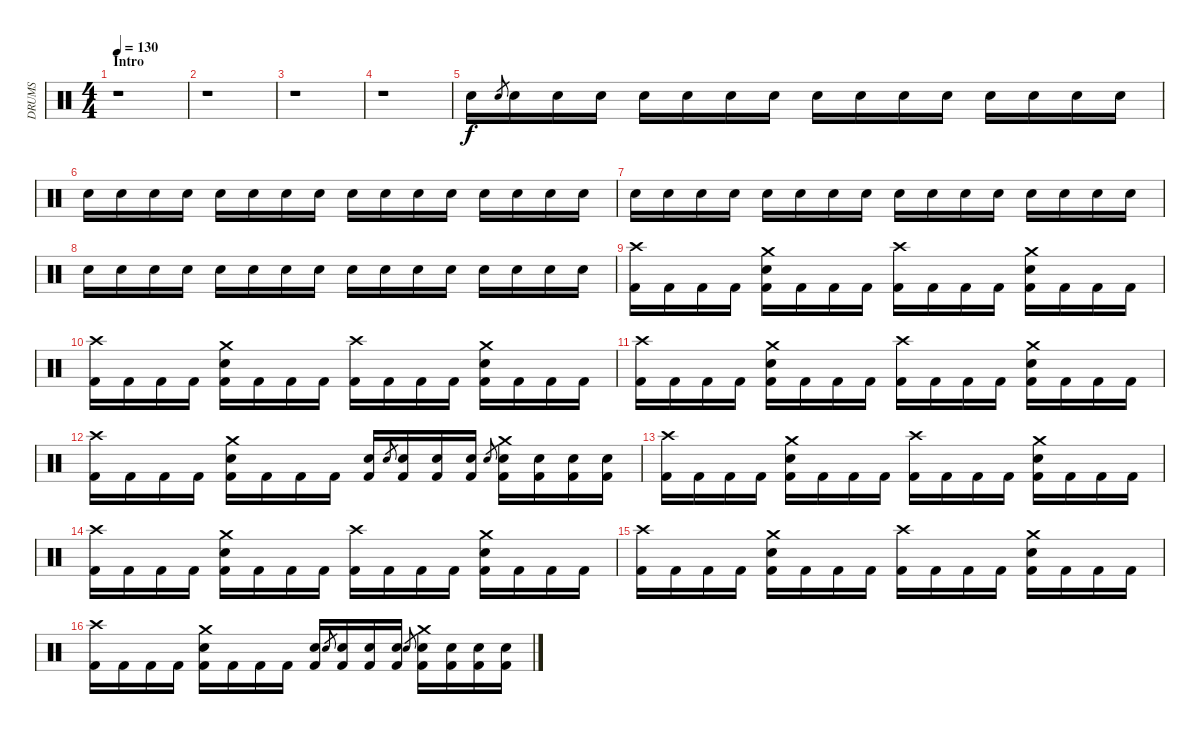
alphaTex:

\track ("DRUMS" "DRUMS") {instrument percussion}
\staff {score}
\articulation defaults
\ts (4 4)
\section ("" "Intro")
\tempo 130
\clef neutral
\ks c
r.1{dy f volume 5} |
r.1 |
r.1 |
r.1 |
"Electric Snare (hit)".16{volume 15} "Electric Snare (hit)".8{gr} "Electric Snare (hit)".16 "Electric Snare (hit)".16 "Electric Snare (hit)".16 "Electric Snare (hit)".16 "Electric Snare (hit)".16 "Electric Snare (hit)".16 "Electric Snare (hit)".16 "Electric Snare (hit)".16 "Electric Snare (hit)".16 "Electric Snare (hit)".16 "Electric Snare (hit)".16 "Electric Snare (hit)".16 "Electric Snare (hit)".16 "Electric Snare (hit)".16 "Electric Snare (hit)".16 |
"Electric Snare (hit)".16 "Electric Snare (hit)".16 "Electric Snare (hit)".16 "Electric Snare (hit)".16 "Electric Snare (hit)".16 "Electric Snare (hit)".16 "Electric Snare (hit)".16 "Electric Snare (hit)".16 "Electric Snare (hit)".16 "Electric Snare (hit)".16 "Electric Snare (hit)".16 "Electric Snare (hit)".16 "Electric Snare (hit)".16 "Electric Snare (hit)".16 "Electric Snare (hit)".16 "Electric Snare (hit)".16 |
"Electric Snare (hit)".16 "Electric Snare (hit)".16 "Electric Snare (hit)".16 "Electric Snare (hit)".16 "Electric Snare (hit)".16 "Electric Snare (hit)".16 "Electric Snare (hit)".16 "Electric Snare (hit)".16 "Electric Snare (hit)".16 "Electric Snare (hit)".16 "Electric Snare (hit)".16 "Electric Snare (hit)".16 "Electric Snare (hit)".16 "Electric Snare (hit)".16 "Electric Snare (hit)".16 "Electric Snare (hit)".16 |
"Electric Snare (hit)".16 "Electric Snare (hit)".16 "Electric Snare (hit)".16 "Electric Snare (hit)".16 "Electric Snare (hit)".16 "Electric Snare (hit)".16 "Electric Snare (hit)".16 "Electric Snare (hit)".16 "Electric Snare (hit)".16 "Electric Snare (hit)".16 "Electric Snare (hit)".16 "Electric Snare (hit)".16 "Electric Snare (hit)".16 "Electric Snare (hit)".16 "Electric Snare (hit)".16 "Electric Snare (hit)".16 |
("Kick (hit) 2" "Crash high (hit)").16 "Kick (hit) 2".16 "Kick (hit) 2".16 "Kick (hit) 2".16 ("Kick (hit) 2" "Crash medium (hit)" "Electric Snare (hit)").16 "Kick (hit) 2".16 "Kick (hit) 2".16 "Kick (hit) 2".16 ("Kick (hit) 2" "Crash high (hit)").16 "Kick (hit) 2".16 "Kick (hit) 2".16 "Kick (hit) 2".16 ("Kick (hit) 2" "Crash medium (hit)" "Electric Snare (hit)").16 "Kick (hit) 2".16 "Kick (hit) 2".16 "Kick (hit) 2".16 |
("Kick (hit) 2" "Crash high (hit)").16 "Kick (hit) 2".16 "Kick (hit) 2".16 "Kick (hit) 2".16 ("Kick (hit) 2" "Crash medium (hit)" "Electric Snare (hit)").16 "Kick (hit) 2".16 "Kick (hit) 2".16 "Kick (hit) 2".16 ("Kick (hit) 2" "Crash high (hit)").16 "Kick (hit) 2".16 "Kick (hit) 2".16 "Kick (hit) 2".16 ("Kick (hit) 2" "Crash medium (hit)" "Electric Snare (hit)").16 "Kick (hit) 2".16 "Kick (hit) 2".16 "Kick (hit) 2".16 |
("Kick (hit) 2" "Crash high (hit)").16 "Kick (hit) 2".16 "Kick (hit) 2".16 "Kick (hit) 2".16 ("Kick (hit) 2" "Crash medium (hit)" "Electric Snare (hit)").16 "Kick (hit) 2".16 "Kick (hit) 2".16 "Kick (hit) 2".16 ("Kick (hit) 2" "Crash high (hit)").16 "Kick (hit) 2".16 "Kick (hit) 2".16 "Kick (hit) 2".16 ("Kick (hit) 2" "Crash medium (hit)" "Electric Snare (hit)").16 "Kick (hit) 2".16 "Kick (hit) 2".16 "Kick (hit) 2".16 |
("Kick (hit) 2" "Crash high (hit)").16 "Kick (hit) 2".16 "Kick (hit) 2".16 "Kick (hit) 2".16 ("Kick (hit) 2" "Crash medium (hit)" "Electric Snare (hit)").16 "Kick (hit) 2".16 "Kick (hit) 2".16 "Kick (hit) 2".16 ("Kick (hit) 2" "Electric Snare (hit)").16 "Electric Snare (hit)".8{gr} ("Kick (hit) 2" "Electric Snare (hit)").16 ("Kick (hit) 2" "Electric Snare (hit)").16 ("Kick (hit) 2" "Electric Snare (hit)").16 "Electric Snare (hit)".8{gr} ("Kick (hit) 2" "Crash medium (hit)" "Electric Snare (hit)").16 ("Kick (hit) 2" "Electric Snare (hit)").16 ("Kick (hit) 2" "Electric Snare (hit)").16 ("Kick (hit) 2" "Electric Snare (hit)").16 |
("Kick (hit) 2" "Crash high (hit)").16 "Kick (hit) 2".16 "Kick (hit) 2".16 "Kick (hit) 2".16 ("Kick (hit) 2" "Crash medium (hit)" "Electric Snare (hit)").16 "Kick (hit) 2".16 "Kick (hit) 2".16 "Kick (hit) 2".16 ("Kick (hit) 2" "Crash high (hit)").16 "Kick (hit) 2".16 "Kick (hit) 2".16 "Kick (hit) 2".16 ("Kick (hit) 2" "Crash medium (hit)" "Electric Snare (hit)").16 "Kick (hit) 2".16 "Kick (hit) 2".16 "Kick (hit) 2".16 |
("Kick (hit) 2" "Crash high (hit)").16 "Kick (hit) 2".16 "Kick (hit) 2".16 "Kick (hit) 2".16 ("Kick (hit) 2" "Crash medium (hit)" "Electric Snare (hit)").16 "Kick (hit) 2".16 "Kick (hit) 2".16 "Kick (hit) 2".16 ("Kick (hit) 2" "Crash high (hit)").16 "Kick (hit) 2".16 "Kick (hit) 2".16 "Kick (hit) 2".16 ("Kick (hit) 2" "Crash medium (hit)" "Electric Snare (hit)").16 "Kick (hit) 2".16 "Kick (hit) 2".16 "Kick (hit) 2".16 |
("Kick (hit) 2" "Crash high (hit)").16 "Kick (hit) 2".16 "Kick (hit) 2".16 "Kick (hit) 2".16 ("Kick (hit) 2" "Crash medium (hit)" "Electric Snare (hit)").16 "Kick (hit) 2".16 "Kick (hit) 2".16 "Kick (hit) 2".16 ("Kick (hit) 2" "Crash high (hit)").16 "Kick (hit) 2".16 "Kick (hit) 2".16 "Kick (hit) 2".16 ("Kick (hit) 2" "Crash medium (hit)" "Electric Snare (hit)").16 "Kick (hit) 2".16 "Kick (hit) 2".16 "Kick (hit) 2".16 |
("Kick (hit) 2" "Crash high (hit)").16 "Kick (hit) 2".16 "Kick (hit) 2".16 "Kick (hit) 2".16 ("Kick (hit) 2" "Crash medium (hit)" "Electric Snare (hit)").16 "Kick (hit) 2".16 "Kick (hit) 2".16 "Kick (hit) 2".16 ("Kick (hit) 2" "Electric Snare (hit)").16 "Electric Snare (hit)".8{gr} ("Kick (hit) 2" "Electric Snare (hit)").16 ("Kick (hit) 2" "Electric Snare (hit)").16 ("Kick (hit) 2" "Electric Snare (hit)").16 "Electric Snare (hit)".8{gr} ("Kick (hit) 2" "Crash medium (hit)" "Electric Snare (hit)").16 ("Kick (hit) 2" "Electric Snare (hit)").16 ("Kick (hit) 2" "Electric Snare (hit)").16 ("Kick (hit) 2" "Electric Snare (hit)").16
